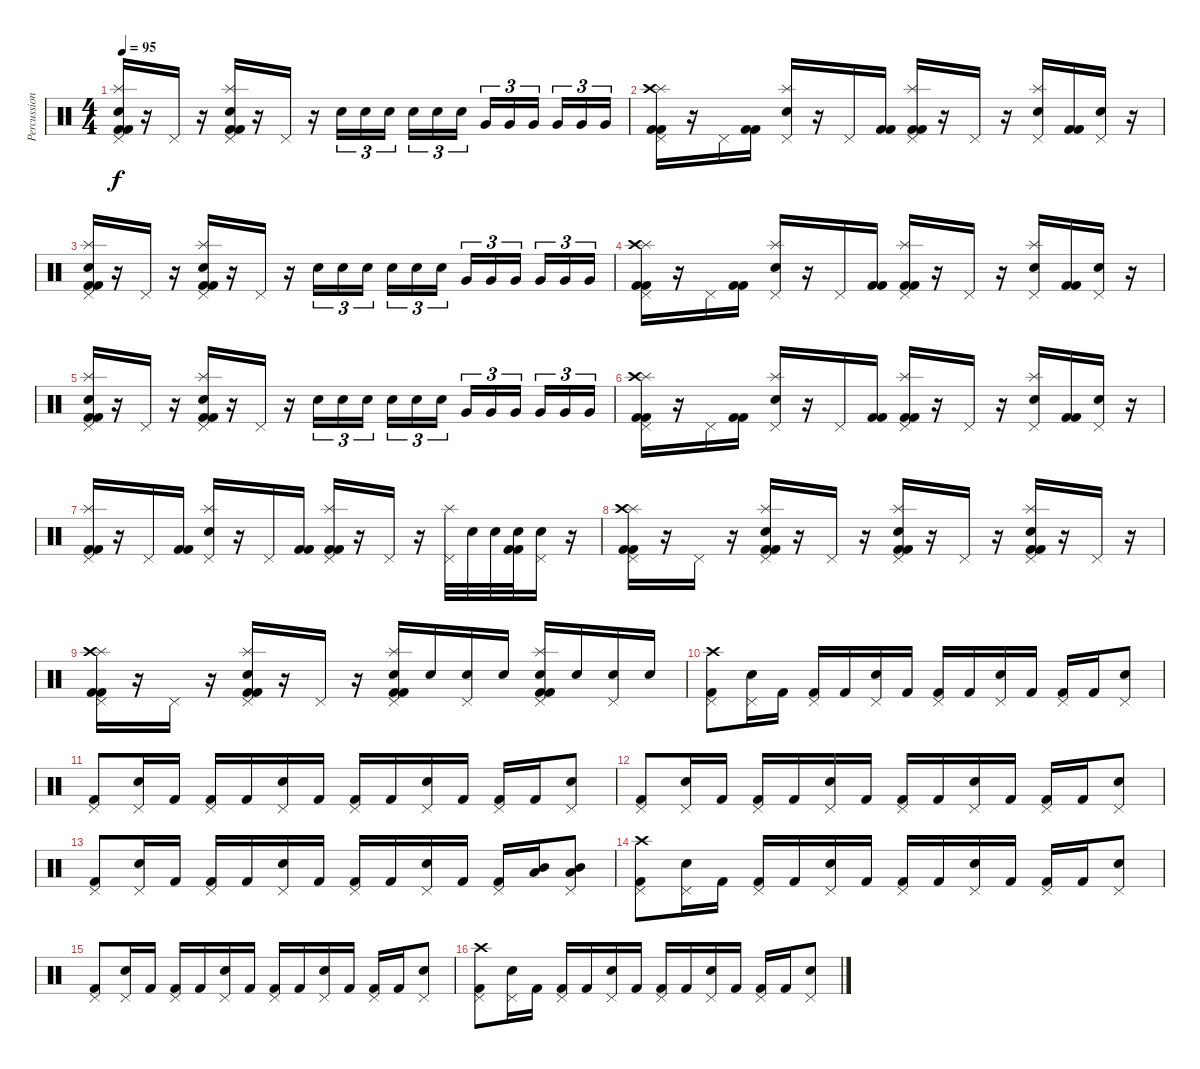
\track ("Percussion" "Percussion") {instrument percussion}
\staff {score}
\articulation defaults
\ts (4 4)
\tempo 95
\clef neutral
\ks c
("Pedal Hi-Hat (hit)" "Splash (hit)" "Electric Snare (hit)" "Kick (hit) 2" "Kick (hit) 2").16{dy f} r.16 "Pedal Hi-Hat (hit)".16 r.16 ("Pedal Hi-Hat (hit)" "Splash (hit)" "Electric Snare (hit)" "Kick (hit) 2" "Kick (hit) 2").16 r.16 "Pedal Hi-Hat (hit)".16 r.16 "Electric Snare (hit)".16{tu (3 2)} "Electric Snare (hit)".16{tu (3 2)} "Electric Snare (hit)".16{tu (3 2)} "Electric Snare (hit)".16{tu (3 2)} "Electric Snare (hit)".16{tu (3 2)} "Electric Snare (hit)".16{tu (3 2)} "Very Low Tom (hit)".16{tu (3 2)} "Very Low Tom (hit)".16{tu (3 2)} "Very Low Tom (hit)".16{tu (3 2)} "Very Low Tom (hit)".16{tu (3 2)} "Very Low Tom (hit)".16{tu (3 2)} "Very Low Tom (hit)".16{tu (3 2)} |
("Pedal Hi-Hat (hit)" "Splash (hit)" "Crash high (hit)" "Kick (hit) 2" "Kick (hit) 2").16 r.16 "Pedal Hi-Hat (hit)".16 ("Kick (hit) 2" "Kick (hit) 2").16 ("Pedal Hi-Hat (hit)" "Splash (hit)" "Electric Snare (hit)").16 r.16 "Pedal Hi-Hat (hit)".16 ("Kick (hit) 2" "Kick (hit) 2").16 ("Pedal Hi-Hat (hit)" "Splash (hit)" "Kick (hit) 2" "Kick (hit) 2").16 r.16 "Pedal Hi-Hat (hit)".16 r.16 ("Pedal Hi-Hat (hit)" "Splash (hit)" "Electric Snare (hit)").16 ("Kick (hit) 2" "Kick (hit) 2").16 ("Pedal Hi-Hat (hit)" "Electric Snare (hit)").16 r.16 |
("Pedal Hi-Hat (hit)" "Splash (hit)" "Electric Snare (hit)" "Kick (hit) 2" "Kick (hit) 2").16 r.16 "Pedal Hi-Hat (hit)".16 r.16 ("Pedal Hi-Hat (hit)" "Splash (hit)" "Electric Snare (hit)" "Kick (hit) 2" "Kick (hit) 2").16 r.16 "Pedal Hi-Hat (hit)".16 r.16 "Electric Snare (hit)".16{tu (3 2)} "Electric Snare (hit)".16{tu (3 2)} "Electric Snare (hit)".16{tu (3 2)} "Electric Snare (hit)".16{tu (3 2)} "Electric Snare (hit)".16{tu (3 2)} "Electric Snare (hit)".16{tu (3 2)} "Very Low Tom (hit)".16{tu (3 2)} "Very Low Tom (hit)".16{tu (3 2)} "Very Low Tom (hit)".16{tu (3 2)} "Very Low Tom (hit)".16{tu (3 2)} "Very Low Tom (hit)".16{tu (3 2)} "Very Low Tom (hit)".16{tu (3 2)} |
("Pedal Hi-Hat (hit)" "Splash (hit)" "Crash high (hit)" "Kick (hit) 2" "Kick (hit) 2").16 r.16 "Pedal Hi-Hat (hit)".16 ("Kick (hit) 2" "Kick (hit) 2").16 ("Pedal Hi-Hat (hit)" "Splash (hit)" "Electric Snare (hit)").16 r.16 "Pedal Hi-Hat (hit)".16 ("Kick (hit) 2" "Kick (hit) 2").16 ("Pedal Hi-Hat (hit)" "Splash (hit)" "Kick (hit) 2" "Kick (hit) 2").16 r.16 "Pedal Hi-Hat (hit)".16 r.16 ("Pedal Hi-Hat (hit)" "Splash (hit)" "Electric Snare (hit)").16 ("Kick (hit) 2" "Kick (hit) 2").16 ("Pedal Hi-Hat (hit)" "Electric Snare (hit)").16 r.16 |
("Pedal Hi-Hat (hit)" "Splash (hit)" "Electric Snare (hit)" "Kick (hit) 2" "Kick (hit) 2").16 r.16 "Pedal Hi-Hat (hit)".16 r.16 ("Pedal Hi-Hat (hit)" "Splash (hit)" "Electric Snare (hit)" "Kick (hit) 2" "Kick (hit) 2").16 r.16 "Pedal Hi-Hat (hit)".16 r.16 "Electric Snare (hit)".16{tu (3 2)} "Electric Snare (hit)".16{tu (3 2)} "Electric Snare (hit)".16{tu (3 2)} "Electric Snare (hit)".16{tu (3 2)} "Electric Snare (hit)".16{tu (3 2)} "Electric Snare (hit)".16{tu (3 2)} "Very Low Tom (hit)".16{tu (3 2)} "Very Low Tom (hit)".16{tu (3 2)} "Very Low Tom (hit)".16{tu (3 2)} "Very Low Tom (hit)".16{tu (3 2)} "Very Low Tom (hit)".16{tu (3 2)} "Very Low Tom (hit)".16{tu (3 2)} |
("Pedal Hi-Hat (hit)" "Splash (hit)" "Crash high (hit)" "Kick (hit) 2" "Kick (hit) 2").16 r.16 "Pedal Hi-Hat (hit)".16 ("Kick (hit) 2" "Kick (hit) 2").16 ("Pedal Hi-Hat (hit)" "Splash (hit)" "Electric Snare (hit)").16 r.16 "Pedal Hi-Hat (hit)".16 ("Kick (hit) 2" "Kick (hit) 2").16 ("Pedal Hi-Hat (hit)" "Splash (hit)" "Kick (hit) 2" "Kick (hit) 2").16 r.16 "Pedal Hi-Hat (hit)".16 r.16 ("Pedal Hi-Hat (hit)" "Splash (hit)" "Electric Snare (hit)").16 ("Kick (hit) 2" "Kick (hit) 2").16 ("Pedal Hi-Hat (hit)" "Electric Snare (hit)").16 r.16 |
("Pedal Hi-Hat (hit)" "Splash (hit)" "Kick (hit) 2" "Kick (hit) 2").16 r.16 "Pedal Hi-Hat (hit)".16 ("Kick (hit) 2" "Kick (hit) 2").16 ("Pedal Hi-Hat (hit)" "Splash (hit)" "Electric Snare (hit)").16 r.16 "Pedal Hi-Hat (hit)".16 ("Kick (hit) 2" "Kick (hit) 2").16 ("Pedal Hi-Hat (hit)" "Splash (hit)" "Kick (hit) 2" "Kick (hit) 2").16 r.16 "Pedal Hi-Hat (hit)".16 r.16 ("Pedal Hi-Hat (hit)" "Splash (hit)").32 "Electric Snare (hit)".32 "Electric Snare (hit)".32 ("Electric Snare (hit)" "Kick (hit) 2" "Kick (hit) 2").32 ("Pedal Hi-Hat (hit)" "Electric Snare (hit)").16 r.16 |
("Pedal Hi-Hat (hit)" "Splash (hit)" "Crash high (hit)" "Kick (hit) 2" "Kick (hit) 2").16 r.16 "Pedal Hi-Hat (hit)".16 r.16 ("Pedal Hi-Hat (hit)" "Splash (hit)" "Electric Snare (hit)" "Kick (hit) 2" "Kick (hit) 2").16 r.16 "Pedal Hi-Hat (hit)".16 r.16 ("Pedal Hi-Hat (hit)" "Splash (hit)" "Electric Snare (hit)" "Kick (hit) 2" "Kick (hit) 2").16 r.16 "Pedal Hi-Hat (hit)".16 r.16 ("Pedal Hi-Hat (hit)" "Splash (hit)" "Electric Snare (hit)" "Kick (hit) 2" "Kick (hit) 2").16 r.16 "Pedal Hi-Hat (hit)".16 r.16 |
("Pedal Hi-Hat (hit)" "Splash (hit)" "Crash high (hit)" "Kick (hit) 2" "Kick (hit) 2").16 r.16 "Pedal Hi-Hat (hit)".16 r.16 ("Pedal Hi-Hat (hit)" "Splash (hit)" "Electric Snare (hit)" "Kick (hit) 2" "Kick (hit) 2").16 r.16 "Pedal Hi-Hat (hit)".16 r.16 ("Pedal Hi-Hat (hit)" "Splash (hit)" "Electric Snare (hit)" "Kick (hit) 2" "Kick (hit) 2").16 "Electric Snare (hit)".16 ("Pedal Hi-Hat (hit)" "Electric Snare (hit)").16 "Electric Snare (hit)".16 ("Pedal Hi-Hat (hit)" "Splash (hit)" "Electric Snare (hit)" "Kick (hit) 2" "Kick (hit) 2").16 "Electric Snare (hit)".16 ("Pedal Hi-Hat (hit)" "Electric Snare (hit)").16 "Electric Snare (hit)".16 |
("Pedal Hi-Hat (hit)" "Crash high (hit)" "Kick (hit) 2").8 ("Pedal Hi-Hat (hit)" "Electric Snare (hit)").16 "Kick (hit) 2".16 ("Pedal Hi-Hat (hit)" "Kick (hit) 2").16 "Kick (hit) 2".16 ("Pedal Hi-Hat (hit)" "Electric Snare (hit)").16 "Kick (hit) 2".16 ("Pedal Hi-Hat (hit)" "Kick (hit) 2").16 "Kick (hit) 2".16 ("Pedal Hi-Hat (hit)" "Electric Snare (hit)").16 "Kick (hit) 2".16 ("Pedal Hi-Hat (hit)" "Kick (hit) 2").16 "Kick (hit) 2".16 ("Pedal Hi-Hat (hit)" "Electric Snare (hit)").8 |
("Pedal Hi-Hat (hit)" "Kick (hit) 2").8 ("Pedal Hi-Hat (hit)" "Electric Snare (hit)").16 "Kick (hit) 2".16 ("Pedal Hi-Hat (hit)" "Kick (hit) 2").16 "Kick (hit) 2".16 ("Pedal Hi-Hat (hit)" "Electric Snare (hit)").16 "Kick (hit) 2".16 ("Pedal Hi-Hat (hit)" "Kick (hit) 2").16 "Kick (hit) 2".16 ("Pedal Hi-Hat (hit)" "Electric Snare (hit)").16 "Kick (hit) 2".16 ("Pedal Hi-Hat (hit)" "Kick (hit) 2").16 "Kick (hit) 2".16 ("Pedal Hi-Hat (hit)" "Electric Snare (hit)").8 |
("Pedal Hi-Hat (hit)" "Kick (hit) 2").8 ("Pedal Hi-Hat (hit)" "Electric Snare (hit)").16 "Kick (hit) 2".16 ("Pedal Hi-Hat (hit)" "Kick (hit) 2").16 "Kick (hit) 2".16 ("Pedal Hi-Hat (hit)" "Electric Snare (hit)").16 "Kick (hit) 2".16 ("Pedal Hi-Hat (hit)" "Kick (hit) 2").16 "Kick (hit) 2".16 ("Pedal Hi-Hat (hit)" "Electric Snare (hit)").16 "Kick (hit) 2".16 ("Pedal Hi-Hat (hit)" "Kick (hit) 2").16 "Kick (hit) 2".16 ("Pedal Hi-Hat (hit)" "Electric Snare (hit)").8 |
("Pedal Hi-Hat (hit)" "Kick (hit) 2").8 ("Pedal Hi-Hat (hit)" "Electric Snare (hit)").16 "Kick (hit) 2".16 ("Pedal Hi-Hat (hit)" "Kick (hit) 2").16 "Kick (hit) 2".16 ("Pedal Hi-Hat (hit)" "Electric Snare (hit)").16 "Kick (hit) 2".16 ("Pedal Hi-Hat (hit)" "Kick (hit) 2").16 "Kick (hit) 2".16 ("Pedal Hi-Hat (hit)" "Electric Snare (hit)").16 "Kick (hit) 2".16 ("Pedal Hi-Hat (hit)" "Kick (hit) 2").16 ("Mid Tom (hit)" "Low Tom (hit)").16 ("Pedal Hi-Hat (hit)" "Mid Tom (hit)" "Low Tom (hit)").8 |
("Pedal Hi-Hat (hit)" "Crash high (hit)" "Kick (hit) 2").8 ("Pedal Hi-Hat (hit)" "Electric Snare (hit)").16 "Kick (hit) 2".16 ("Pedal Hi-Hat (hit)" "Kick (hit) 2").16 "Kick (hit) 2".16 ("Pedal Hi-Hat (hit)" "Electric Snare (hit)").16 "Kick (hit) 2".16 ("Pedal Hi-Hat (hit)" "Kick (hit) 2").16 "Kick (hit) 2".16 ("Pedal Hi-Hat (hit)" "Electric Snare (hit)").16 "Kick (hit) 2".16 ("Pedal Hi-Hat (hit)" "Kick (hit) 2").16 "Kick (hit) 2".16 ("Pedal Hi-Hat (hit)" "Electric Snare (hit)").8 |
("Pedal Hi-Hat (hit)" "Kick (hit) 2").8 ("Pedal Hi-Hat (hit)" "Electric Snare (hit)").16 "Kick (hit) 2".16 ("Pedal Hi-Hat (hit)" "Kick (hit) 2").16 "Kick (hit) 2".16 ("Pedal Hi-Hat (hit)" "Electric Snare (hit)").16 "Kick (hit) 2".16 ("Pedal Hi-Hat (hit)" "Kick (hit) 2").16 "Kick (hit) 2".16 ("Pedal Hi-Hat (hit)" "Electric Snare (hit)").16 "Kick (hit) 2".16 ("Pedal Hi-Hat (hit)" "Kick (hit) 2").16 "Kick (hit) 2".16 ("Pedal Hi-Hat (hit)" "Electric Snare (hit)").8 |
("Pedal Hi-Hat (hit)" "Crash high (hit)" "Kick (hit) 2").8 ("Pedal Hi-Hat (hit)" "Electric Snare (hit)").16 "Kick (hit) 2".16 ("Pedal Hi-Hat (hit)" "Kick (hit) 2").16 "Kick (hit) 2".16 ("Pedal Hi-Hat (hit)" "Electric Snare (hit)").16 "Kick (hit) 2".16 ("Pedal Hi-Hat (hit)" "Kick (hit) 2").16 "Kick (hit) 2".16 ("Pedal Hi-Hat (hit)" "Electric Snare (hit)").16 "Kick (hit) 2".16 ("Pedal Hi-Hat (hit)" "Kick (hit) 2").16 "Kick (hit) 2".16 ("Pedal Hi-Hat (hit)" "Electric Snare (hit)").8
